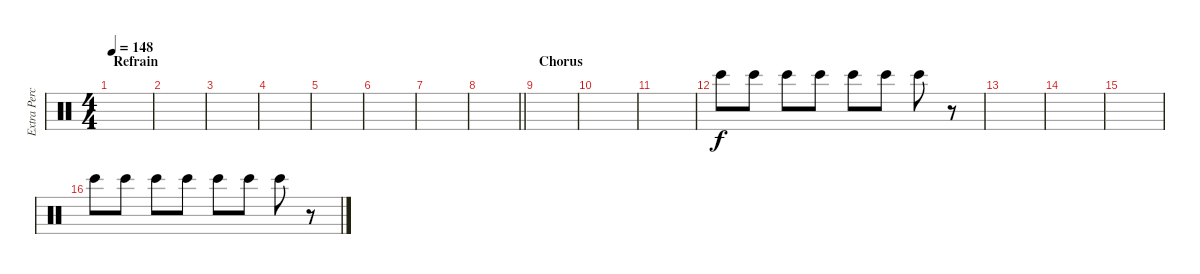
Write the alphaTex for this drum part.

\track ("Extra Percussion" "Extra Perc") {instrument percussion}
\staff {score}
\articulation defaults
\ts (4 4)
\section ("" "Refrain")
\tempo 148
\clef neutral
\ks c
|
|
|
|
|
|
|
\barLineRight lightlight
|
\section ("" "Chorus")
|
|
|
"Bongo High (hit)".8 "Bongo High (hit)".8 "Bongo High (hit)".8 "Bongo High (hit)".8 "Bongo High (hit)".8 "Bongo High (hit)".8 "Bongo High (hit)".8 r.8 |
|
|
|
"Bongo High (hit)".8 "Bongo High (hit)".8 "Bongo High (hit)".8 "Bongo High (hit)".8 "Bongo High (hit)".8 "Bongo High (hit)".8 "Bongo High (hit)".8 r.8
